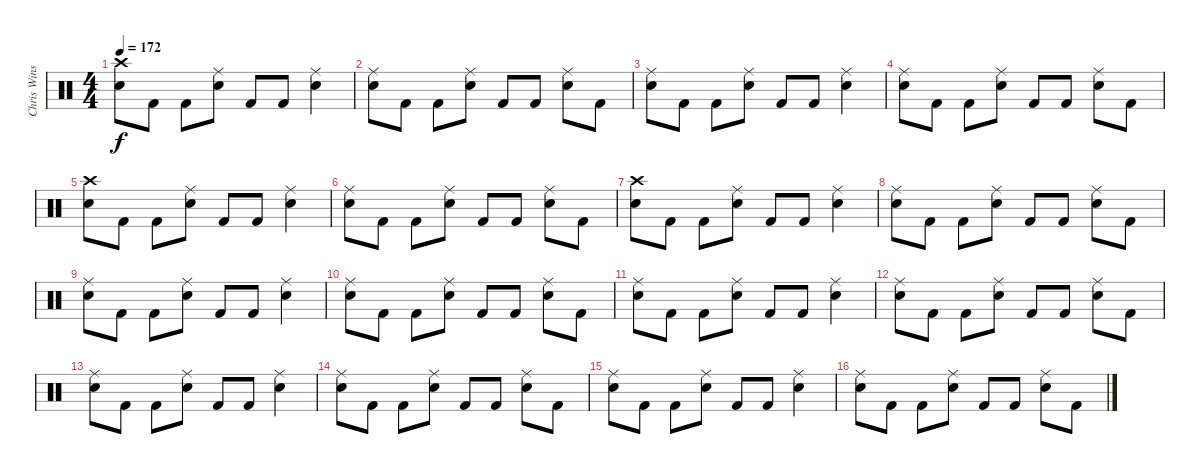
\track ("Chris Winship (Drums)" "Chris Wins") {instrument percussion}
\staff {score}
\articulation defaults
\ts (4 4)
\tempo 172
\clef neutral
\ks c
("Electric Snare (hit)" "Crash high (hit)").8{dy f} "Kick (hit) 2".8 "Kick (hit) 2".8 ("Electric Snare (hit)" "Ride (middle)").8 "Kick (hit) 2".8 "Kick (hit) 2".8 ("Electric Snare (hit)" "Ride (middle)").4 |
("Electric Snare (hit)" "Ride (middle)").8 "Kick (hit) 2".8 "Kick (hit) 2".8 ("Electric Snare (hit)" "Ride (middle)").8 "Kick (hit) 2".8 "Kick (hit) 2".8 ("Electric Snare (hit)" "Ride (middle)").8 "Kick (hit) 2".8 |
("Electric Snare (hit)" "Ride (middle)").8 "Kick (hit) 2".8 "Kick (hit) 2".8 ("Electric Snare (hit)" "Ride (middle)").8 "Kick (hit) 2".8 "Kick (hit) 2".8 ("Electric Snare (hit)" "Ride (middle)").4 |
("Electric Snare (hit)" "Ride (middle)").8 "Kick (hit) 2".8 "Kick (hit) 2".8 ("Electric Snare (hit)" "Ride (middle)").8 "Kick (hit) 2".8 "Kick (hit) 2".8 ("Electric Snare (hit)" "Ride (middle)").8 "Kick (hit) 2".8 |
("Electric Snare (hit)" "Crash high (hit)").8 "Kick (hit) 2".8 "Kick (hit) 2".8 ("Electric Snare (hit)" "Ride (middle)").8 "Kick (hit) 2".8 "Kick (hit) 2".8 ("Electric Snare (hit)" "Ride (middle)").4 |
("Electric Snare (hit)" "Ride (middle)").8 "Kick (hit) 2".8 "Kick (hit) 2".8 ("Electric Snare (hit)" "Ride (middle)").8 "Kick (hit) 2".8 "Kick (hit) 2".8 ("Electric Snare (hit)" "Ride (middle)").8 "Kick (hit) 2".8 |
("Electric Snare (hit)" "Crash high (hit)").8 "Kick (hit) 2".8 "Kick (hit) 2".8 ("Electric Snare (hit)" "Ride (middle)").8 "Kick (hit) 2".8 "Kick (hit) 2".8 ("Electric Snare (hit)" "Ride (middle)").4 |
("Electric Snare (hit)" "Ride (middle)").8 "Kick (hit) 2".8 "Kick (hit) 2".8 ("Electric Snare (hit)" "Ride (middle)").8 "Kick (hit) 2".8 "Kick (hit) 2".8 ("Electric Snare (hit)" "Ride (middle)").8 "Kick (hit) 2".8 |
("Electric Snare (hit)" "Ride (middle)").8 "Kick (hit) 2".8 "Kick (hit) 2".8 ("Electric Snare (hit)" "Ride (middle)").8 "Kick (hit) 2".8 "Kick (hit) 2".8 ("Electric Snare (hit)" "Ride (middle)").4 |
("Electric Snare (hit)" "Ride (middle)").8 "Kick (hit) 2".8 "Kick (hit) 2".8 ("Electric Snare (hit)" "Ride (middle)").8 "Kick (hit) 2".8 "Kick (hit) 2".8 ("Electric Snare (hit)" "Ride (middle)").8 "Kick (hit) 2".8 |
("Electric Snare (hit)" "Ride (middle)").8 "Kick (hit) 2".8 "Kick (hit) 2".8 ("Electric Snare (hit)" "Ride (middle)").8 "Kick (hit) 2".8 "Kick (hit) 2".8 ("Electric Snare (hit)" "Ride (middle)").4 |
("Electric Snare (hit)" "Ride (middle)").8 "Kick (hit) 2".8 "Kick (hit) 2".8 ("Electric Snare (hit)" "Ride (middle)").8 "Kick (hit) 2".8 "Kick (hit) 2".8 ("Electric Snare (hit)" "Ride (middle)").8 "Kick (hit) 2".8 |
("Electric Snare (hit)" "Ride (middle)").8 "Kick (hit) 2".8 "Kick (hit) 2".8 ("Electric Snare (hit)" "Ride (middle)").8 "Kick (hit) 2".8 "Kick (hit) 2".8 ("Electric Snare (hit)" "Ride (middle)").4 |
("Electric Snare (hit)" "Ride (middle)").8 "Kick (hit) 2".8 "Kick (hit) 2".8 ("Electric Snare (hit)" "Ride (middle)").8 "Kick (hit) 2".8 "Kick (hit) 2".8 ("Electric Snare (hit)" "Ride (middle)").8 "Kick (hit) 2".8 |
("Electric Snare (hit)" "Ride (middle)").8 "Kick (hit) 2".8 "Kick (hit) 2".8 ("Electric Snare (hit)" "Ride (middle)").8 "Kick (hit) 2".8 "Kick (hit) 2".8 ("Electric Snare (hit)" "Ride (middle)").4 |
("Electric Snare (hit)" "Ride (middle)").8 "Kick (hit) 2".8 "Kick (hit) 2".8 ("Electric Snare (hit)" "Ride (middle)").8 "Kick (hit) 2".8 "Kick (hit) 2".8 ("Electric Snare (hit)" "Ride (middle)").8 "Kick (hit) 2".8
